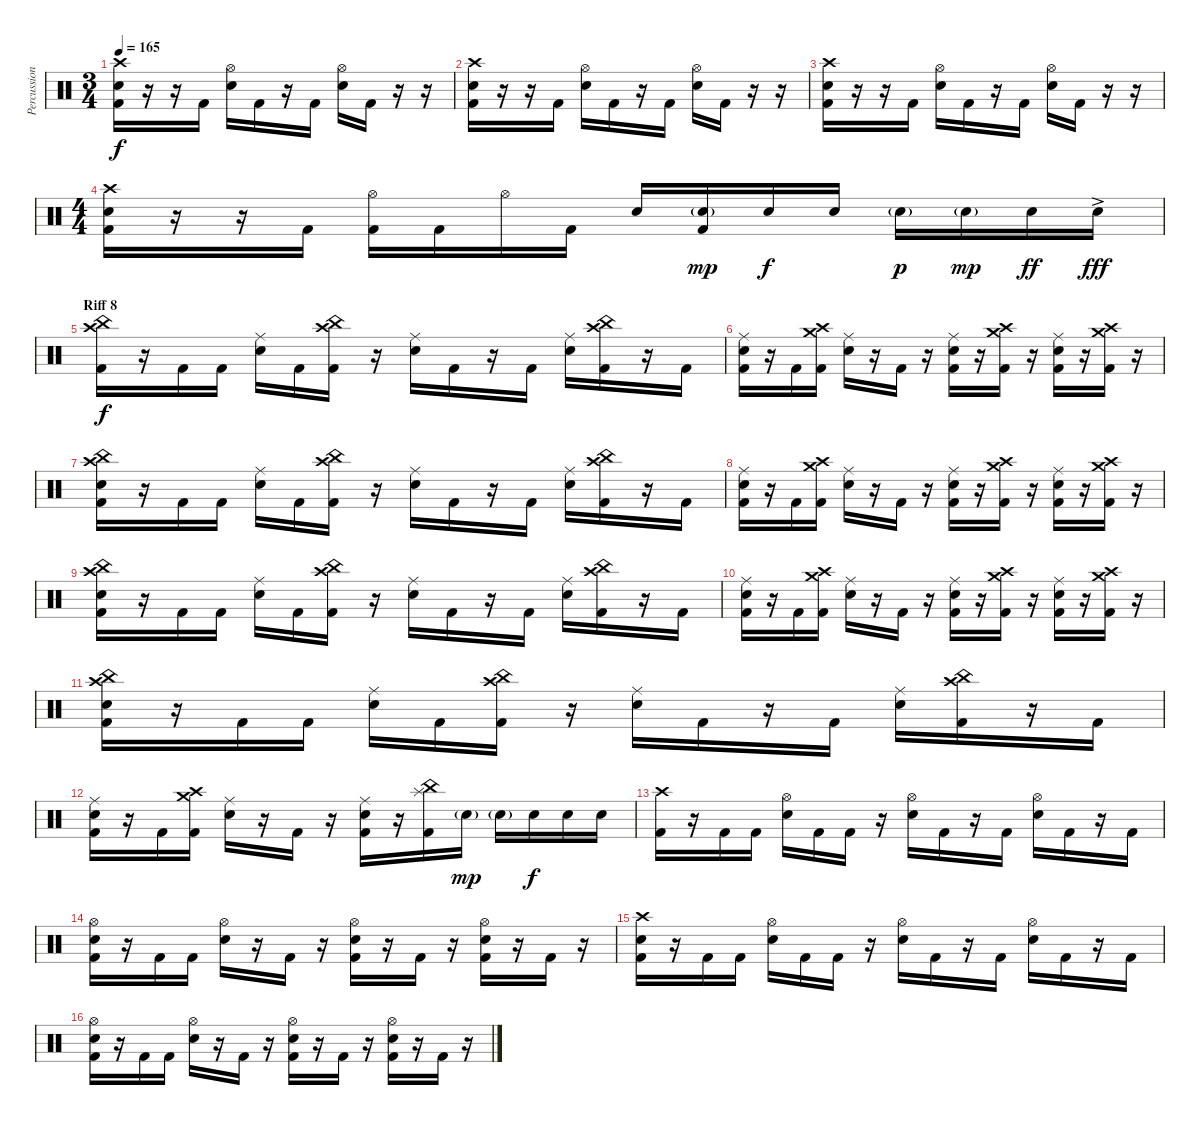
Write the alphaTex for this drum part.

\track ("Percussion" "Percussion") {instrument percussion}
\staff {score}
\articulation defaults
\ts (3 4)
\tempo 165
\clef neutral
\ks c
("Crash high (hit)" "Electric Snare (hit)" "Kick (hit) 2").16{dy f} r.16 r.16 "Kick (hit) 2".16 ("Hi-Hat (open)" "Electric Snare (hit)").16 "Kick (hit) 2".16 r.16 "Kick (hit) 2".16 ("Hi-Hat (open)" "Electric Snare (hit)").16 "Kick (hit) 2".16 r.16 r.16 |
("Crash high (hit)" "Electric Snare (hit)" "Kick (hit) 2").16 r.16 r.16 "Kick (hit) 2".16 ("Hi-Hat (open)" "Electric Snare (hit)").16 "Kick (hit) 2".16 r.16 "Kick (hit) 2".16 ("Hi-Hat (open)" "Electric Snare (hit)").16 "Kick (hit) 2".16 r.16 r.16 |
("Crash high (hit)" "Electric Snare (hit)" "Kick (hit) 2").16 r.16 r.16 "Kick (hit) 2".16 ("Hi-Hat (open)" "Electric Snare (hit)").16 "Kick (hit) 2".16 r.16 "Kick (hit) 2".16 ("Hi-Hat (open)" "Electric Snare (hit)").16 "Kick (hit) 2".16 r.16 r.16 |
\ts (4 4)
("Crash high (hit)" "Electric Snare (hit)" "Kick (hit) 2").16 r.16 r.16 "Kick (hit) 2".16 ("Hi-Hat (open)" "Kick (hit) 2").16 "Kick (hit) 2".16 "Hi-Hat (open)".16 "Kick (hit) 2".16 "Electric Snare (hit)".16 ("Electric Snare (hit)"{g} "Kick (hit) 2").16{dy mp} "Electric Snare (hit)".16{dy f} "Electric Snare (hit)".16 "Electric Snare (hit)"{g}.16{dy p} "Electric Snare (hit)"{g}.16{dy mp} "Electric Snare (hit)".16{dy ff} "Electric Snare (hit)"{ac}.16{dy fff} |
\section ("" "Riff 8")
("Crash high (hit)" "China (hit)" "Kick (hit) 2").16{dy f} r.16 "Kick (hit) 2".16 "Kick (hit) 2".16 ("Ride (middle)" "Electric Snare (hit)").16 "Kick (hit) 2".16 ("Crash high (hit)" "China (hit)" "Kick (hit) 2").16 r.16 ("Ride (middle)" "Electric Snare (hit)").16 "Kick (hit) 2".16 r.16 "Kick (hit) 2".16 ("Ride (middle)" "Electric Snare (hit)").16 ("Crash high (hit)" "China (hit)" "Kick (hit) 2").16 r.16 "Kick (hit) 2".16 |
("Ride (middle)" "Electric Snare (hit)" "Kick (hit) 2").16 r.16 "Kick (hit) 2".16 ("Crash high (hit)" "Crash medium (hit)" "Kick (hit) 2").16 ("Ride (middle)" "Electric Snare (hit)").16 r.16 "Kick (hit) 2".16 r.16 ("Ride (middle)" "Electric Snare (hit)" "Kick (hit) 2").16 r.16 ("Crash high (hit)" "Crash medium (hit)" "Kick (hit) 2").16 r.16 ("Ride (middle)" "Electric Snare (hit)" "Kick (hit) 2").16 r.16 ("Crash high (hit)" "Crash medium (hit)" "Kick (hit) 2").16 r.16 |
("Crash high (hit)" "China (hit)" "Electric Snare (hit)" "Kick (hit) 2").16 r.16 "Kick (hit) 2".16 "Kick (hit) 2".16 ("Ride (middle)" "Electric Snare (hit)").16 "Kick (hit) 2".16 ("Crash high (hit)" "China (hit)" "Kick (hit) 2").16 r.16 ("Ride (middle)" "Electric Snare (hit)").16 "Kick (hit) 2".16 r.16 "Kick (hit) 2".16 ("Ride (middle)" "Electric Snare (hit)").16 ("Crash high (hit)" "China (hit)" "Kick (hit) 2").16 r.16 "Kick (hit) 2".16 |
("Ride (middle)" "Electric Snare (hit)" "Kick (hit) 2").16 r.16 "Kick (hit) 2".16 ("Crash high (hit)" "Crash medium (hit)" "Kick (hit) 2").16 ("Ride (middle)" "Electric Snare (hit)").16 r.16 "Kick (hit) 2".16 r.16 ("Ride (middle)" "Electric Snare (hit)" "Kick (hit) 2").16 r.16 ("Crash high (hit)" "Crash medium (hit)" "Kick (hit) 2").16 r.16 ("Ride (middle)" "Electric Snare (hit)" "Kick (hit) 2").16 r.16 ("Crash high (hit)" "Crash medium (hit)" "Kick (hit) 2").16 r.16 |
("Crash high (hit)" "China (hit)" "Electric Snare (hit)" "Kick (hit) 2").16 r.16 "Kick (hit) 2".16 "Kick (hit) 2".16 ("Ride (middle)" "Electric Snare (hit)").16 "Kick (hit) 2".16 ("Crash high (hit)" "China (hit)" "Kick (hit) 2").16 r.16 ("Ride (middle)" "Electric Snare (hit)").16 "Kick (hit) 2".16 r.16 "Kick (hit) 2".16 ("Ride (middle)" "Electric Snare (hit)").16 ("Crash high (hit)" "China (hit)" "Kick (hit) 2").16 r.16 "Kick (hit) 2".16 |
("Ride (middle)" "Electric Snare (hit)" "Kick (hit) 2").16 r.16 "Kick (hit) 2".16 ("Crash high (hit)" "Crash medium (hit)" "Kick (hit) 2").16 ("Ride (middle)" "Electric Snare (hit)").16 r.16 "Kick (hit) 2".16 r.16 ("Ride (middle)" "Electric Snare (hit)" "Kick (hit) 2").16 r.16 ("Crash high (hit)" "Crash medium (hit)" "Kick (hit) 2").16 r.16 ("Ride (middle)" "Electric Snare (hit)" "Kick (hit) 2").16 r.16 ("Crash high (hit)" "Crash medium (hit)" "Kick (hit) 2").16 r.16 |
("Crash high (hit)" "China (hit)" "Electric Snare (hit)" "Kick (hit) 2").16 r.16 "Kick (hit) 2".16 "Kick (hit) 2".16 ("Ride (middle)" "Electric Snare (hit)").16 "Kick (hit) 2".16 ("Crash high (hit)" "China (hit)" "Kick (hit) 2").16 r.16 ("Ride (middle)" "Electric Snare (hit)").16 "Kick (hit) 2".16 r.16 "Kick (hit) 2".16 ("Ride (middle)" "Electric Snare (hit)").16 ("Crash high (hit)" "China (hit)" "Kick (hit) 2").16 r.16 "Kick (hit) 2".16 |
("Ride (middle)" "Electric Snare (hit)" "Kick (hit) 2").16 r.16 "Kick (hit) 2".16 ("Crash high (hit)" "Crash medium (hit)" "Kick (hit) 2").16 ("Ride (middle)" "Electric Snare (hit)").16 r.16 "Kick (hit) 2".16 r.16 ("Ride (middle)" "Electric Snare (hit)" "Kick (hit) 2").16 r.16 ("Splash (hit)" "China (hit)" "Kick (hit) 2").16 "Electric Snare (hit)"{g}.16{dy mp} "Electric Snare (hit)"{g}.16 "Electric Snare (hit)".16{dy f} "Electric Snare (hit)".16 "Electric Snare (hit)".16 |
("Crash high (hit)" "Kick (hit) 2").16 r.16 "Kick (hit) 2".16 "Kick (hit) 2".16 ("Hi-Hat (open)" "Electric Snare (hit)").16 "Kick (hit) 2".16 "Kick (hit) 2".16 r.16 ("Hi-Hat (open)" "Electric Snare (hit)").16 "Kick (hit) 2".16 r.16 "Kick (hit) 2".16 ("Hi-Hat (open)" "Electric Snare (hit)").16 "Kick (hit) 2".16 r.16 "Kick (hit) 2".16 |
("Hi-Hat (open)" "Electric Snare (hit)" "Kick (hit) 2").16 r.16 "Kick (hit) 2".16 "Kick (hit) 2".16 ("Hi-Hat (open)" "Electric Snare (hit)").16 r.16 "Kick (hit) 2".16 r.16 ("Hi-Hat (open)" "Electric Snare (hit)" "Kick (hit) 2").16 r.16 "Kick (hit) 2".16 r.16 ("Hi-Hat (open)" "Electric Snare (hit)" "Kick (hit) 2").16 r.16 "Kick (hit) 2".16 r.16 |
("Crash high (hit)" "Electric Snare (hit)" "Kick (hit) 2").16 r.16 "Kick (hit) 2".16 "Kick (hit) 2".16 ("Hi-Hat (open)" "Electric Snare (hit)").16 "Kick (hit) 2".16 "Kick (hit) 2".16 r.16 ("Hi-Hat (open)" "Electric Snare (hit)").16 "Kick (hit) 2".16 r.16 "Kick (hit) 2".16 ("Hi-Hat (open)" "Electric Snare (hit)").16 "Kick (hit) 2".16 r.16 "Kick (hit) 2".16 |
("Hi-Hat (open)" "Electric Snare (hit)" "Kick (hit) 2").16 r.16 "Kick (hit) 2".16 "Kick (hit) 2".16 ("Hi-Hat (open)" "Electric Snare (hit)").16 r.16 "Kick (hit) 2".16 r.16 ("Hi-Hat (open)" "Electric Snare (hit)" "Kick (hit) 2").16 r.16 "Kick (hit) 2".16 r.16 ("Hi-Hat (open)" "Electric Snare (hit)" "Kick (hit) 2").16 r.16 "Kick (hit) 2".16 r.16
